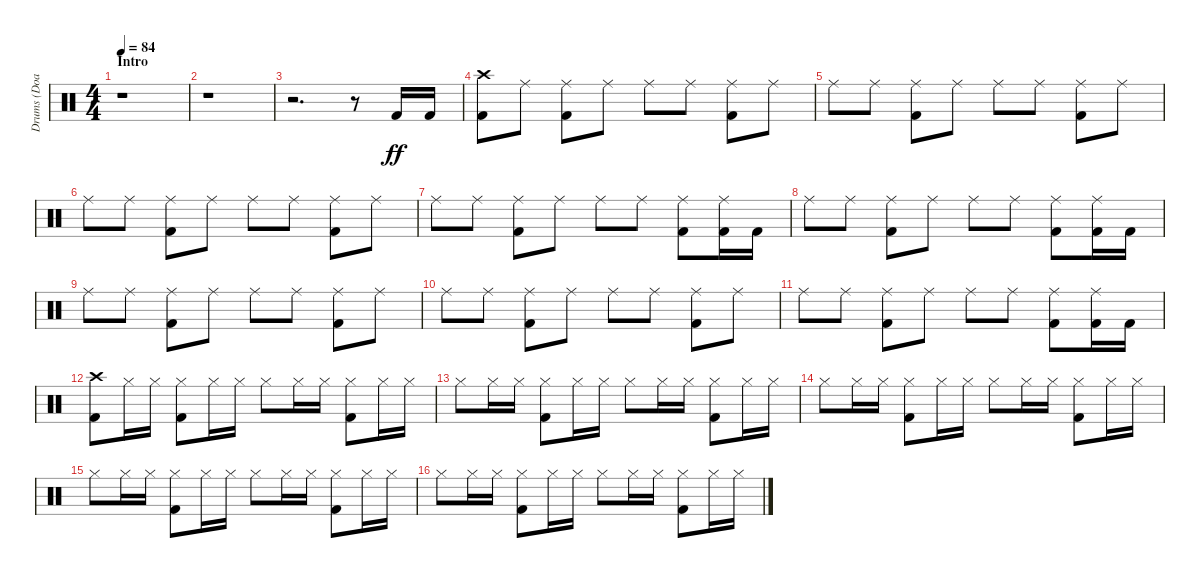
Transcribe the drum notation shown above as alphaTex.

\track ("Drums (Doane Perry)" "Drums (Doa") {instrument percussion}
\staff {score}
\articulation defaults
\ts (4 4)
\section ("" "Intro")
\tempo 84
\clef neutral
\ks c
r.1{dy ff} |
r.1 |
r.2{d} r.8 "Kick (hit) 2".16 "Kick (hit) 2".16 |
("Crash high (hit)" "Kick (hit) 2").8 "Ride (middle)".8 ("Ride (middle)" "Kick (hit) 2").8 "Ride (middle)".8 "Ride (middle)".8 "Ride (middle)".8 ("Ride (middle)" "Kick (hit) 2").8 "Ride (middle)".8 |
"Ride (middle)".8 "Ride (middle)".8 ("Ride (middle)" "Kick (hit) 2").8 "Ride (middle)".8 "Ride (middle)".8 "Ride (middle)".8 ("Ride (middle)" "Kick (hit) 2").8 "Ride (middle)".8 |
"Ride (middle)".8 "Ride (middle)".8 ("Ride (middle)" "Kick (hit) 2").8 "Ride (middle)".8 "Ride (middle)".8 "Ride (middle)".8 ("Ride (middle)" "Kick (hit) 2").8 "Ride (middle)".8 |
"Ride (middle)".8 "Ride (middle)".8 ("Ride (middle)" "Kick (hit) 2").8 "Ride (middle)".8 "Ride (middle)".8 "Ride (middle)".8 ("Ride (middle)" "Kick (hit) 2").8 ("Ride (middle)" "Kick (hit) 2").16 "Kick (hit) 2".16 |
"Ride (middle)".8 "Ride (middle)".8 ("Ride (middle)" "Kick (hit) 2").8 "Ride (middle)".8 "Ride (middle)".8 "Ride (middle)".8 ("Ride (middle)" "Kick (hit) 2").8 ("Ride (middle)" "Kick (hit) 2").16 "Kick (hit) 2".16 |
"Ride (middle)".8 "Ride (middle)".8 ("Ride (middle)" "Kick (hit) 2").8 "Ride (middle)".8 "Ride (middle)".8 "Ride (middle)".8 ("Ride (middle)" "Kick (hit) 2").8 "Ride (middle)".8 |
"Ride (middle)".8 "Ride (middle)".8 ("Ride (middle)" "Kick (hit) 2").8 "Ride (middle)".8 "Ride (middle)".8 "Ride (middle)".8 ("Ride (middle)" "Kick (hit) 2").8 "Ride (middle)".8 |
"Ride (middle)".8 "Ride (middle)".8 ("Ride (middle)" "Kick (hit) 2").8 "Ride (middle)".8 "Ride (middle)".8 "Ride (middle)".8 ("Ride (middle)" "Kick (hit) 2").8 ("Ride (middle)" "Kick (hit) 2").16 "Kick (hit) 2".16 |
("Crash high (hit)" "Kick (hit) 2").8 "Hi-Hat (closed)".16 "Hi-Hat (closed)".16 ("Hi-Hat (closed)" "Kick (hit) 2").8 "Hi-Hat (closed)".16 "Hi-Hat (closed)".16 "Hi-Hat (closed)".8 "Hi-Hat (closed)".16 "Hi-Hat (closed)".16 ("Hi-Hat (closed)" "Kick (hit) 2").8 "Hi-Hat (closed)".16 "Hi-Hat (closed)".16 |
"Hi-Hat (closed)".8 "Hi-Hat (closed)".16 "Hi-Hat (closed)".16 ("Hi-Hat (closed)" "Kick (hit) 2").8 "Hi-Hat (closed)".16 "Hi-Hat (closed)".16 "Hi-Hat (closed)".8 "Hi-Hat (closed)".16 "Hi-Hat (closed)".16 ("Hi-Hat (closed)" "Kick (hit) 2").8 "Hi-Hat (closed)".16 "Hi-Hat (closed)".16 |
"Hi-Hat (closed)".8 "Hi-Hat (closed)".16 "Hi-Hat (closed)".16 ("Hi-Hat (closed)" "Kick (hit) 2").8 "Hi-Hat (closed)".16 "Hi-Hat (closed)".16 "Hi-Hat (closed)".8 "Hi-Hat (closed)".16 "Hi-Hat (closed)".16 ("Hi-Hat (closed)" "Kick (hit) 2").8 "Hi-Hat (closed)".16 "Hi-Hat (closed)".16 |
"Hi-Hat (closed)".8 "Hi-Hat (closed)".16 "Hi-Hat (closed)".16 ("Hi-Hat (closed)" "Kick (hit) 2").8 "Hi-Hat (closed)".16 "Hi-Hat (closed)".16 "Hi-Hat (closed)".8 "Hi-Hat (closed)".16 "Hi-Hat (closed)".16 ("Hi-Hat (closed)" "Kick (hit) 2").8 "Hi-Hat (closed)".16 "Hi-Hat (closed)".16 |
"Hi-Hat (closed)".8 "Hi-Hat (closed)".16 "Hi-Hat (closed)".16 ("Hi-Hat (closed)" "Kick (hit) 2").8 "Hi-Hat (closed)".16 "Hi-Hat (closed)".16 "Hi-Hat (closed)".8 "Hi-Hat (closed)".16 "Hi-Hat (closed)".16 ("Hi-Hat (closed)" "Kick (hit) 2").8 "Hi-Hat (closed)".16 "Hi-Hat (closed)".16
